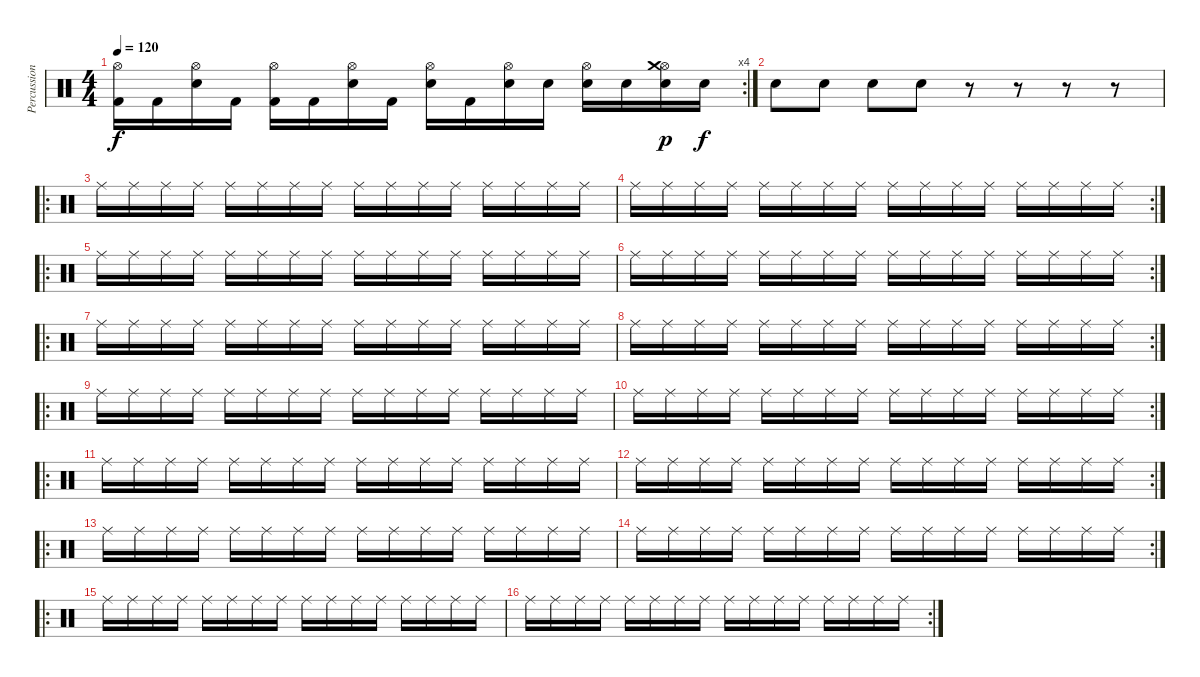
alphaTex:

\track ("Percussions" "Percussion") {instrument percussion}
\staff {score}
\articulation defaults
\rc 4
\ts (4 4)
\tempo 120
\clef neutral
\ks c
("Hi-Hat (open)" "Kick (hit) 2").16{dy f} "Kick (hit) 2".16 ("Hi-Hat (open)" "Electric Snare (hit)").16 "Kick (hit) 2".16 ("Hi-Hat (open)" "Kick (hit) 2").16 "Kick (hit) 2".16 ("Hi-Hat (open)" "Electric Snare (hit)").16 "Kick (hit) 2".16 ("Hi-Hat (open)" "Electric Snare (hit)").16 "Kick (hit) 2".16 ("Hi-Hat (open)" "Electric Snare (hit)").16 "Electric Snare (hit)".16 ("Hi-Hat (open)" "Electric Snare (hit)").16 "Electric Snare (hit)".16 ("Hi-Hat (open)" "Crash medium (hit)" "Electric Snare (hit)").16{dy p} "Electric Snare (hit)".16{dy f} |
"Electric Snare (hit)".8 "Electric Snare (hit)".8 "Electric Snare (hit)".8 "Electric Snare (hit)".8 r.8 r.8 r.8 r.8 |
\ro "Ride (middle)".16 "Ride (middle)".16 "Ride (middle)".16 "Ride (middle)".16 "Ride (middle)".16 "Ride (middle)".16 "Ride (middle)".16 "Ride (middle)".16 "Ride (middle)".16 "Ride (middle)".16 "Ride (middle)".16 "Ride (middle)".16 "Ride (middle)".16 "Ride (middle)".16 "Ride (middle)".16 "Ride (middle)".16
|
\rc 2 "Ride (middle)".16 "Ride (middle)".16 "Ride (middle)".16 "Ride (middle)".16 "Ride (middle)".16 "Ride (middle)".16 "Ride (middle)".16 "Ride (middle)".16 "Ride (middle)".16 "Ride (middle)".16 "Ride (middle)".16 "Ride (middle)".16 "Ride (middle)".16 "Ride (middle)".16 "Ride (middle)".16 "Ride (middle)".16
|
\ro "Ride (middle)".16 "Ride (middle)".16 "Ride (middle)".16 "Ride (middle)".16 "Ride (middle)".16 "Ride (middle)".16 "Ride (middle)".16 "Ride (middle)".16 "Ride (middle)".16 "Ride (middle)".16 "Ride (middle)".16 "Ride (middle)".16 "Ride (middle)".16 "Ride (middle)".16 "Ride (middle)".16 "Ride (middle)".16
|
\rc 2 "Ride (middle)".16 "Ride (middle)".16 "Ride (middle)".16 "Ride (middle)".16 "Ride (middle)".16 "Ride (middle)".16 "Ride (middle)".16 "Ride (middle)".16 "Ride (middle)".16 "Ride (middle)".16 "Ride (middle)".16 "Ride (middle)".16 "Ride (middle)".16 "Ride (middle)".16 "Ride (middle)".16 "Ride (middle)".16
|
\ro "Ride (middle)".16 "Ride (middle)".16 "Ride (middle)".16 "Ride (middle)".16 "Ride (middle)".16 "Ride (middle)".16 "Ride (middle)".16 "Ride (middle)".16 "Ride (middle)".16 "Ride (middle)".16 "Ride (middle)".16 "Ride (middle)".16 "Ride (middle)".16 "Ride (middle)".16 "Ride (middle)".16 "Ride (middle)".16
|
\rc 2 "Ride (middle)".16 "Ride (middle)".16 "Ride (middle)".16 "Ride (middle)".16 "Ride (middle)".16 "Ride (middle)".16 "Ride (middle)".16 "Ride (middle)".16 "Ride (middle)".16 "Ride (middle)".16 "Ride (middle)".16 "Ride (middle)".16 "Ride (middle)".16 "Ride (middle)".16 "Ride (middle)".16 "Ride (middle)".16
|
\ro "Ride (middle)".16 "Ride (middle)".16 "Ride (middle)".16 "Ride (middle)".16 "Ride (middle)".16 "Ride (middle)".16 "Ride (middle)".16 "Ride (middle)".16 "Ride (middle)".16 "Ride (middle)".16 "Ride (middle)".16 "Ride (middle)".16 "Ride (middle)".16 "Ride (middle)".16 "Ride (middle)".16 "Ride (middle)".16
|
\rc 2 "Ride (middle)".16 "Ride (middle)".16 "Ride (middle)".16 "Ride (middle)".16 "Ride (middle)".16 "Ride (middle)".16 "Ride (middle)".16 "Ride (middle)".16 "Ride (middle)".16 "Ride (middle)".16 "Ride (middle)".16 "Ride (middle)".16 "Ride (middle)".16 "Ride (middle)".16 "Ride (middle)".16 "Ride (middle)".16
|
\ro "Ride (middle)".16 "Ride (middle)".16 "Ride (middle)".16 "Ride (middle)".16 "Ride (middle)".16 "Ride (middle)".16 "Ride (middle)".16 "Ride (middle)".16 "Ride (middle)".16 "Ride (middle)".16 "Ride (middle)".16 "Ride (middle)".16 "Ride (middle)".16 "Ride (middle)".16 "Ride (middle)".16 "Ride (middle)".16
|
\rc 2 "Ride (middle)".16 "Ride (middle)".16 "Ride (middle)".16 "Ride (middle)".16 "Ride (middle)".16 "Ride (middle)".16 "Ride (middle)".16 "Ride (middle)".16 "Ride (middle)".16 "Ride (middle)".16 "Ride (middle)".16 "Ride (middle)".16 "Ride (middle)".16 "Ride (middle)".16 "Ride (middle)".16 "Ride (middle)".16
|
\ro "Ride (middle)".16 "Ride (middle)".16 "Ride (middle)".16 "Ride (middle)".16 "Ride (middle)".16 "Ride (middle)".16 "Ride (middle)".16 "Ride (middle)".16 "Ride (middle)".16 "Ride (middle)".16 "Ride (middle)".16 "Ride (middle)".16 "Ride (middle)".16 "Ride (middle)".16 "Ride (middle)".16 "Ride (middle)".16
|
\rc 2 "Ride (middle)".16 "Ride (middle)".16 "Ride (middle)".16 "Ride (middle)".16 "Ride (middle)".16 "Ride (middle)".16 "Ride (middle)".16 "Ride (middle)".16 "Ride (middle)".16 "Ride (middle)".16 "Ride (middle)".16 "Ride (middle)".16 "Ride (middle)".16 "Ride (middle)".16 "Ride (middle)".16 "Ride (middle)".16
|
\ro "Ride (middle)".16 "Ride (middle)".16 "Ride (middle)".16 "Ride (middle)".16 "Ride (middle)".16 "Ride (middle)".16 "Ride (middle)".16 "Ride (middle)".16 "Ride (middle)".16 "Ride (middle)".16 "Ride (middle)".16 "Ride (middle)".16 "Ride (middle)".16 "Ride (middle)".16 "Ride (middle)".16 "Ride (middle)".16
|
\rc 2 "Ride (middle)".16 "Ride (middle)".16 "Ride (middle)".16 "Ride (middle)".16 "Ride (middle)".16 "Ride (middle)".16 "Ride (middle)".16 "Ride (middle)".16 "Ride (middle)".16 "Ride (middle)".16 "Ride (middle)".16 "Ride (middle)".16 "Ride (middle)".16 "Ride (middle)".16 "Ride (middle)".16 "Ride (middle)".16
